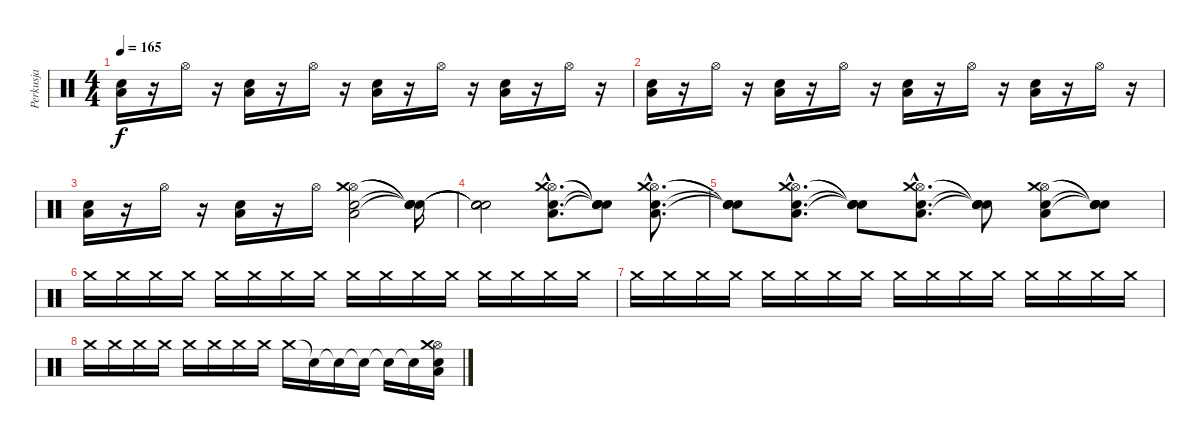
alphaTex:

\track ("Perkusja" "Perkusja") {instrument percussion}
\staff {score}
\articulation defaults
\ts (4 4)
\tempo 165
\clef neutral
\ks c
("Snare (hit) 2" "Low Tom (hit)").16{dy f} r.16 "Hi-Hat (open)".16 r.16 ("Snare (hit) 2" "Low Tom (hit)").16 r.16 "Hi-Hat (open)".16 r.16 ("Snare (hit) 2" "Low Tom (hit)").16 r.16 "Hi-Hat (open)".16 r.16 ("Snare (hit) 2" "Low Tom (hit)").16 r.16 "Hi-Hat (open)".16 r.16 |
("Snare (hit) 2" "Low Tom (hit)").16 r.16 "Hi-Hat (open)".16 r.16 ("Snare (hit) 2" "Low Tom (hit)").16 r.16 "Hi-Hat (open)".16 r.16 ("Snare (hit) 2" "Low Tom (hit)").16 r.16 "Hi-Hat (open)".16 r.16 ("Snare (hit) 2" "Low Tom (hit)").16 r.16 "Hi-Hat (open)".16 r.16 |
("Snare (hit) 2" "Low Tom (hit)").16 r.16 "Hi-Hat (open)".16 r.16 ("Snare (hit) 2" "Low Tom (hit)").16 r.16 "Hi-Hat (open)".16 ("Snare (hit) 2" "Low Tom (hit)" "Hi-Hat (open)" "Crash medium (hit)").2 ("Snare (hit)"{t} "Snare (hit)"{t} "Snare (hit)"{t} "Snare (hit)"{t}).16 |
("Snare (hit)"{t} "Snare (hit)"{t} "Snare (hit)"{t} "Snare (hit)"{t}).2 ("Snare (hit) 2"{hac} "Low Tom (hit)"{hac} "Hi-Hat (open)"{hac} "Crash medium (hit)"{hac}).8{d} ("Snare (hit)"{t} "Snare (hit)"{t} "Snare (hit)"{t} "Snare (hit)"{t}).8 ("Snare (hit) 2"{hac} "Low Tom (hit)"{hac} "Hi-Hat (open)"{hac} "Crash medium (hit)"{hac}).8{d} |
("Snare (hit)"{t} "Snare (hit)"{t} "Snare (hit)"{t} "Snare (hit)"{t}).8 ("Snare (hit) 2"{hac} "Low Tom (hit)"{hac} "Hi-Hat (open)"{hac} "Crash medium (hit)"{hac}).8{d} ("Snare (hit)"{t} "Snare (hit)"{t} "Snare (hit)"{t} "Snare (hit)"{t}).8 ("Snare (hit) 2"{hac} "Low Tom (hit)"{hac} "Hi-Hat (open)"{hac} "Crash medium (hit)"{hac}).8{d} ("Snare (hit)"{t} "Snare (hit)"{t} "Snare (hit)"{t} "Snare (hit)"{t}).8 ("Snare (hit) 2" "Low Tom (hit)" "Hi-Hat (open)" "Crash medium (hit)").8 ("Snare (hit)"{t} "Snare (hit)"{t} "Snare (hit)"{t} "Snare (hit)"{t}).8 |
"Crash medium (hit)".16 "Crash medium (hit)".16 "Crash medium (hit)".16 "Crash medium (hit)".16 "Crash medium (hit)".16 "Crash medium (hit)".16 "Crash medium (hit)".16 "Crash medium (hit)".16 "Crash medium (hit)".16 "Crash medium (hit)".16 "Crash medium (hit)".16 "Crash medium (hit)".16 "Crash medium (hit)".16 "Crash medium (hit)".16 "Crash medium (hit)".16 "Crash medium (hit)".16 |
"Crash medium (hit)".16 "Crash medium (hit)".16 "Crash medium (hit)".16 "Crash medium (hit)".16 "Crash medium (hit)".16 "Crash medium (hit)".16 "Crash medium (hit)".16 "Crash medium (hit)".16 "Crash medium (hit)".16 "Crash medium (hit)".16 "Crash medium (hit)".16 "Crash medium (hit)".16 "Crash medium (hit)".16 "Crash medium (hit)".16 "Crash medium (hit)".16 "Crash medium (hit)".16 |
"Crash medium (hit)".16 "Crash medium (hit)".16 "Crash medium (hit)".16 "Crash medium (hit)".16 "Crash medium (hit)".16 "Crash medium (hit)".16 "Crash medium (hit)".16 "Crash medium (hit)".16 "Crash medium (hit)".16 "Snare (hit)"{t}.16 "Snare (hit)"{t}.16 "Snare (hit)"{t}.16 "Snare (hit)"{t}.16 "Snare (hit)"{t}.16 ("Snare (hit) 2" "Low Tom (hit)" "Hi-Hat (open)" "Crash medium (hit)").16
